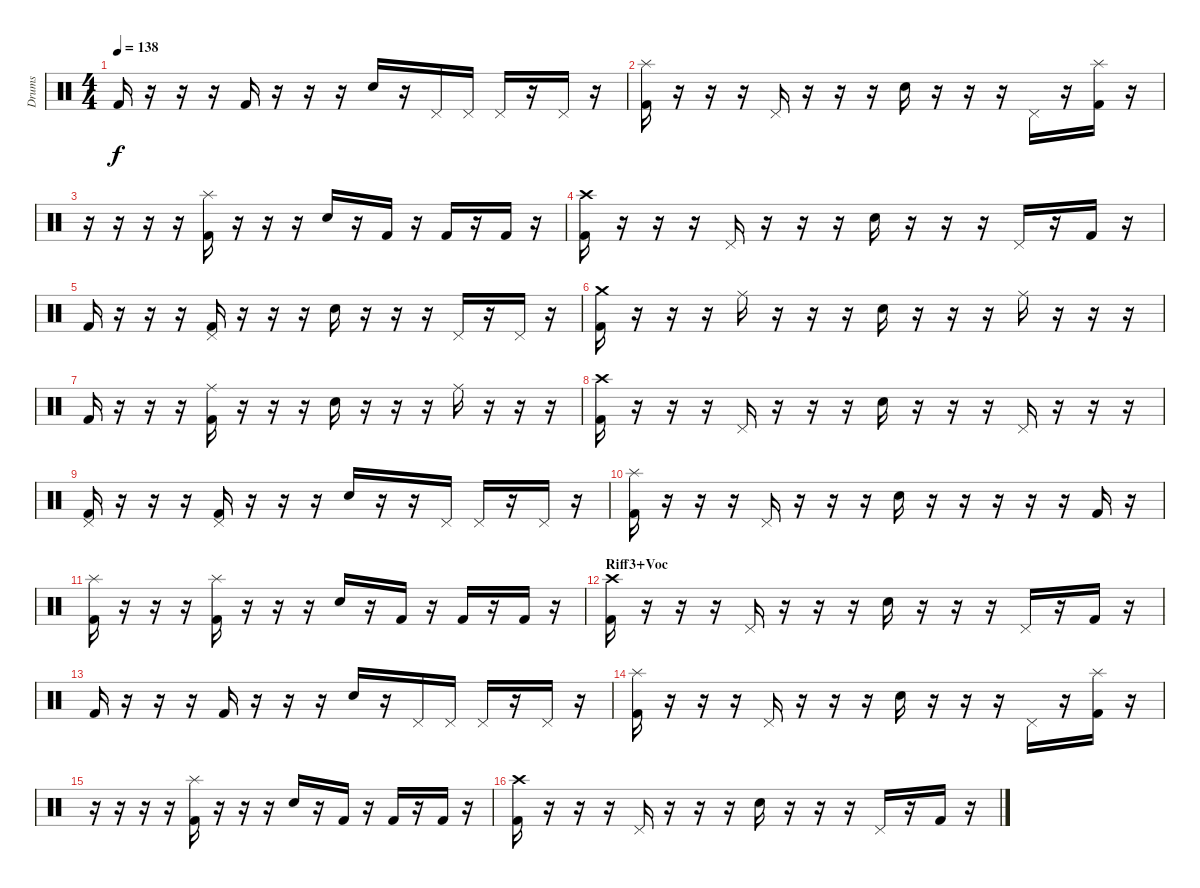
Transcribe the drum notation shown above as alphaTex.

\track ("Drums" "Drums") {instrument percussion}
\staff {score}
\articulation defaults
\ts (4 4)
\tempo 138
\clef neutral
\ks c "Kick (hit) 2".16{dy f}
r.16 r.16 r.16 "Kick (hit) 2".16 r.16 r.16 r.16 "Snare (hit) 2".16 r.16 "Pedal Hi-Hat (hit)".16 "Pedal Hi-Hat (hit)".16 "Pedal Hi-Hat (hit)".16 r.16 "Pedal Hi-Hat (hit)".16 r.16 |
("Splash (hit)" "Kick (hit) 2").16 r.16 r.16 r.16 "Pedal Hi-Hat (hit)".16 r.16 r.16 r.16 "Snare (hit) 2".16 r.16 r.16 r.16 "Pedal Hi-Hat (hit)".16 r.16 ("Splash (hit)" "Kick (hit) 2").16 r.16 |
r.16 r.16 r.16 r.16 ("Splash (hit)" "Kick (hit) 2").16 r.16 r.16 r.16 "Snare (hit) 2".16 r.16 "Kick (hit) 2".16 r.16 "Kick (hit) 2".16 r.16 "Kick (hit) 2".16 r.16 |
("Crash high (hit)" "Kick (hit) 2").16 r.16 r.16 r.16 "Pedal Hi-Hat (hit)".16 r.16 r.16 r.16 "Snare (hit) 2".16 r.16 r.16 r.16 "Pedal Hi-Hat (hit)".16 r.16 "Kick (hit) 2".16 r.16 |
"Kick (hit) 2".16 r.16 r.16 r.16 ("Pedal Hi-Hat (hit)" "Kick (hit) 2").16 r.16 r.16 r.16 "Snare (hit) 2".16 r.16 r.16 r.16 "Pedal Hi-Hat (hit)".16 r.16 "Pedal Hi-Hat (hit)".16 r.16 |
("Crash medium (hit)" "Kick (hit) 2").16 r.16 r.16 r.16 "Ride (middle)".16 r.16 r.16 r.16 "Snare (hit) 2".16 r.16 r.16 r.16 "Ride (middle)".16 r.16 r.16 r.16 |
"Kick (hit) 2".16 r.16 r.16 r.16 ("Ride (middle)" "Kick (hit) 2").16 r.16 r.16 r.16 "Snare (hit) 2".16 r.16 r.16 r.16 "Ride (middle)".16 r.16 r.16 r.16 |
("Crash high (hit)" "Kick (hit) 2").16 r.16 r.16 r.16 "Pedal Hi-Hat (hit)".16 r.16 r.16 r.16 "Snare (hit) 2".16 r.16 r.16 r.16 "Pedal Hi-Hat (hit)".16 r.16 r.16 r.16 |
("Pedal Hi-Hat (hit)" "Kick (hit) 2").16 r.16 r.16 r.16 ("Pedal Hi-Hat (hit)" "Kick (hit) 2").16 r.16 r.16 r.16 "Snare (hit) 2".16 r.16 r.16 "Pedal Hi-Hat (hit)".16 "Pedal Hi-Hat (hit)".16 r.16 "Pedal Hi-Hat (hit)".16 r.16 |
("Splash (hit)" "Kick (hit) 2").16 r.16 r.16 r.16 "Pedal Hi-Hat (hit)".16 r.16 r.16 r.16 "Snare (hit) 2".16 r.16 r.16 r.16 r.16 r.16 "Kick (hit) 2".16 r.16 |
("Splash (hit)" "Kick (hit) 2").16 r.16 r.16 r.16 ("Splash (hit)" "Kick (hit) 2").16 r.16 r.16 r.16 "Snare (hit) 2".16 r.16 "Kick (hit) 2".16 r.16 "Kick (hit) 2".16 r.16 "Kick (hit) 2".16 r.16 |
\section ("" "Riff3+Voc")
("Crash high (hit)" "Kick (hit) 2").16 r.16 r.16 r.16 "Pedal Hi-Hat (hit)".16 r.16 r.16 r.16 "Snare (hit) 2".16 r.16 r.16 r.16 "Pedal Hi-Hat (hit)".16 r.16 "Kick (hit) 2".16 r.16 |
"Kick (hit) 2".16 r.16 r.16 r.16 "Kick (hit) 2".16 r.16 r.16 r.16 "Snare (hit) 2".16 r.16 "Pedal Hi-Hat (hit)".16 "Pedal Hi-Hat (hit)".16 "Pedal Hi-Hat (hit)".16 r.16 "Pedal Hi-Hat (hit)".16 r.16 |
("Splash (hit)" "Kick (hit) 2").16 r.16 r.16 r.16 "Pedal Hi-Hat (hit)".16 r.16 r.16 r.16 "Snare (hit) 2".16 r.16 r.16 r.16 "Pedal Hi-Hat (hit)".16 r.16 ("Splash (hit)" "Kick (hit) 2").16 r.16 |
r.16 r.16 r.16 r.16 ("Splash (hit)" "Kick (hit) 2").16 r.16 r.16 r.16 "Snare (hit) 2".16 r.16 "Kick (hit) 2".16 r.16 "Kick (hit) 2".16 r.16 "Kick (hit) 2".16 r.16 |
("Crash high (hit)" "Kick (hit) 2").16 r.16 r.16 r.16 "Pedal Hi-Hat (hit)".16 r.16 r.16 r.16 "Snare (hit) 2".16 r.16 r.16 r.16 "Pedal Hi-Hat (hit)".16 r.16 "Kick (hit) 2".16 r.16
